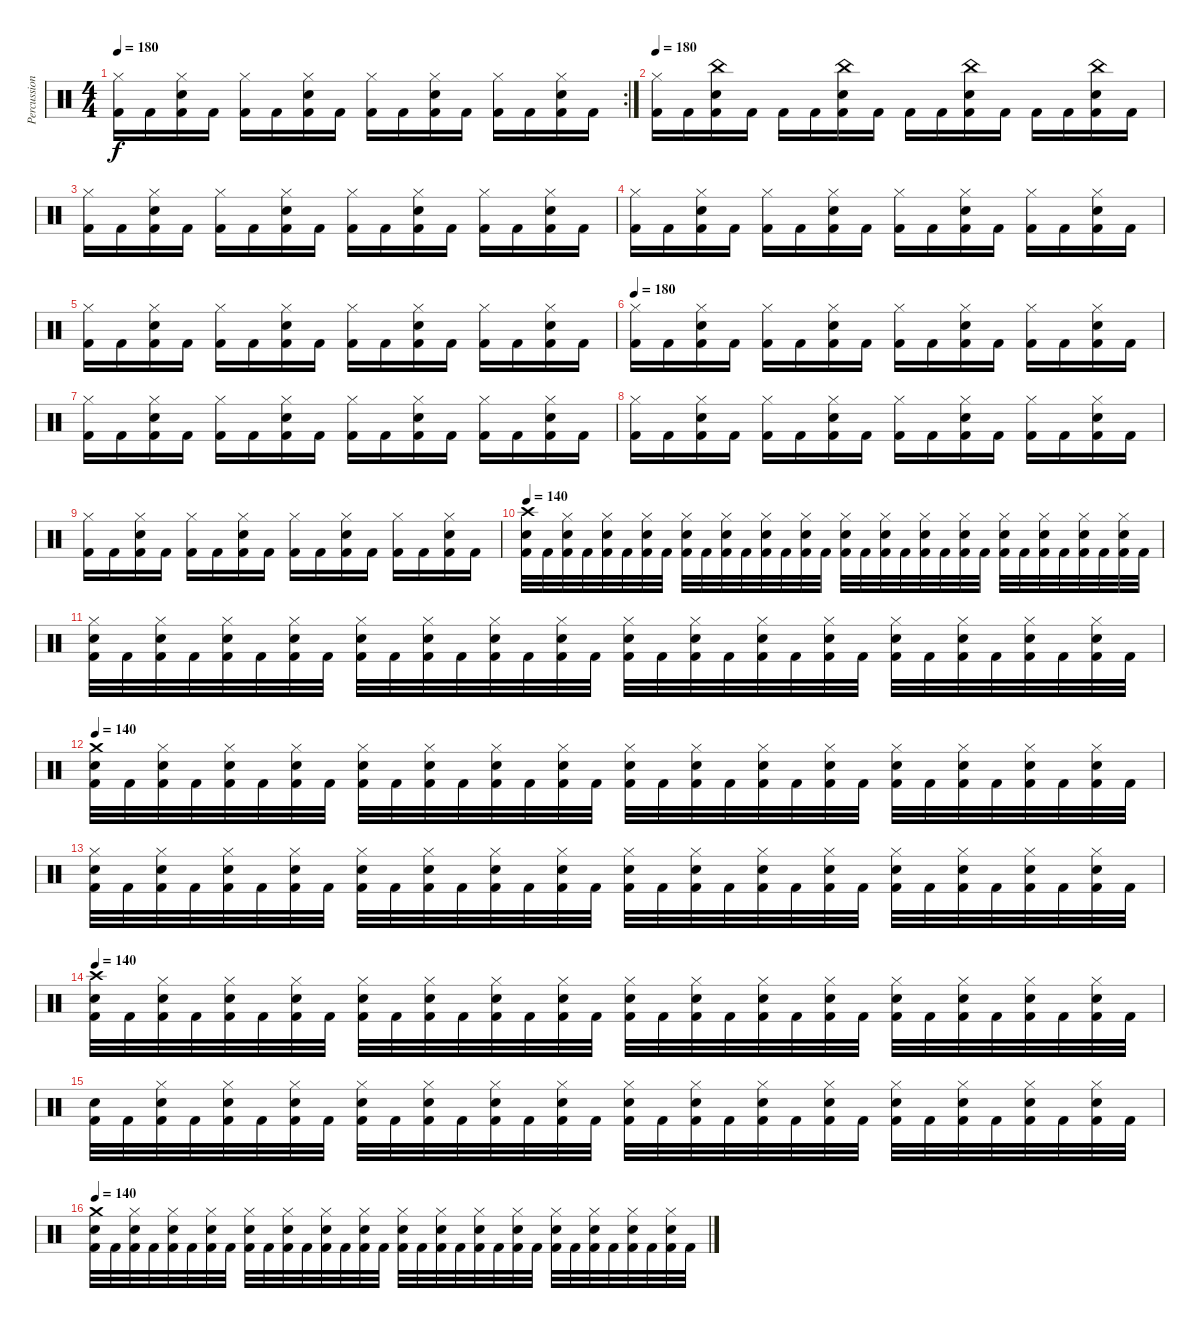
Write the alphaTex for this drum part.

\track ("Percussion" "Percussion") {instrument percussion}
\staff {score}
\articulation defaults
\rc 2
\ts (4 4)
\tempo 180
\clef neutral
\ks c
("Hi-Hat (closed)" "Kick (hit) 2").16{dy f} "Kick (hit) 2".16 ("Hi-Hat (closed)" "Electric Snare (hit)" "Kick (hit) 2").16 "Kick (hit) 2".16 ("Hi-Hat (closed)" "Kick (hit) 2").16 "Kick (hit) 2".16 ("Hi-Hat (closed)" "Electric Snare (hit)" "Kick (hit) 2").16 "Kick (hit) 2".16 ("Hi-Hat (closed)" "Kick (hit) 2").16 "Kick (hit) 2".16 ("Hi-Hat (closed)" "Electric Snare (hit)" "Kick (hit) 2").16 "Kick (hit) 2".16 ("Hi-Hat (closed)" "Kick (hit) 2").16 "Kick (hit) 2".16 ("Hi-Hat (closed)" "Electric Snare (hit)" "Kick (hit) 2").16 "Kick (hit) 2".16 |
\tempo 180
("Hi-Hat (closed)" "Kick (hit) 2").16 "Kick (hit) 2".16 ("China (hit)" "Electric Snare (hit)" "Kick (hit) 2").16 "Kick (hit) 2".16 "Kick (hit) 2".16 "Kick (hit) 2".16 ("China (hit)" "Electric Snare (hit)" "Kick (hit) 2").16 "Kick (hit) 2".16 "Kick (hit) 2".16 "Kick (hit) 2".16 ("China (hit)" "Electric Snare (hit)" "Kick (hit) 2").16 "Kick (hit) 2".16 "Kick (hit) 2".16 "Kick (hit) 2".16 ("China (hit)" "Electric Snare (hit)" "Kick (hit) 2").16 "Kick (hit) 2".16 |
("Hi-Hat (closed)" "Kick (hit) 2").16 "Kick (hit) 2".16 ("Hi-Hat (closed)" "Electric Snare (hit)" "Kick (hit) 2").16 "Kick (hit) 2".16 ("Hi-Hat (closed)" "Kick (hit) 2").16 "Kick (hit) 2".16 ("Hi-Hat (closed)" "Electric Snare (hit)" "Kick (hit) 2").16 "Kick (hit) 2".16 ("Hi-Hat (closed)" "Kick (hit) 2").16 "Kick (hit) 2".16 ("Hi-Hat (closed)" "Electric Snare (hit)" "Kick (hit) 2").16 "Kick (hit) 2".16 ("Hi-Hat (closed)" "Kick (hit) 2").16 "Kick (hit) 2".16 ("Hi-Hat (closed)" "Electric Snare (hit)" "Kick (hit) 2").16 "Kick (hit) 2".16 |
("Hi-Hat (closed)" "Kick (hit) 2").16 "Kick (hit) 2".16 ("Hi-Hat (closed)" "Electric Snare (hit)" "Kick (hit) 2").16 "Kick (hit) 2".16 ("Hi-Hat (closed)" "Kick (hit) 2").16 "Kick (hit) 2".16 ("Hi-Hat (closed)" "Electric Snare (hit)" "Kick (hit) 2").16 "Kick (hit) 2".16 ("Hi-Hat (closed)" "Kick (hit) 2").16 "Kick (hit) 2".16 ("Hi-Hat (closed)" "Electric Snare (hit)" "Kick (hit) 2").16 "Kick (hit) 2".16 ("Hi-Hat (closed)" "Kick (hit) 2").16 "Kick (hit) 2".16 ("Hi-Hat (closed)" "Electric Snare (hit)" "Kick (hit) 2").16 "Kick (hit) 2".16 |
("Hi-Hat (closed)" "Kick (hit) 2").16 "Kick (hit) 2".16 ("Hi-Hat (closed)" "Electric Snare (hit)" "Kick (hit) 2").16 "Kick (hit) 2".16 ("Hi-Hat (closed)" "Kick (hit) 2").16 "Kick (hit) 2".16 ("Hi-Hat (closed)" "Electric Snare (hit)" "Kick (hit) 2").16 "Kick (hit) 2".16 ("Hi-Hat (closed)" "Kick (hit) 2").16 "Kick (hit) 2".16 ("Hi-Hat (closed)" "Electric Snare (hit)" "Kick (hit) 2").16 "Kick (hit) 2".16 ("Hi-Hat (closed)" "Kick (hit) 2").16 "Kick (hit) 2".16 ("Hi-Hat (closed)" "Electric Snare (hit)" "Kick (hit) 2").16 "Kick (hit) 2".16 |
\tempo 180
("Hi-Hat (closed)" "Kick (hit) 2").16 "Kick (hit) 2".16 ("Hi-Hat (closed)" "Electric Snare (hit)" "Kick (hit) 2").16 "Kick (hit) 2".16 ("Hi-Hat (closed)" "Kick (hit) 2").16 "Kick (hit) 2".16 ("Hi-Hat (closed)" "Electric Snare (hit)" "Kick (hit) 2").16 "Kick (hit) 2".16 ("Hi-Hat (closed)" "Kick (hit) 2").16 "Kick (hit) 2".16 ("Hi-Hat (closed)" "Electric Snare (hit)" "Kick (hit) 2").16 "Kick (hit) 2".16 ("Hi-Hat (closed)" "Kick (hit) 2").16 "Kick (hit) 2".16 ("Hi-Hat (closed)" "Electric Snare (hit)" "Kick (hit) 2").16 "Kick (hit) 2".16 |
("Hi-Hat (closed)" "Kick (hit) 2").16 "Kick (hit) 2".16 ("Hi-Hat (closed)" "Electric Snare (hit)" "Kick (hit) 2").16 "Kick (hit) 2".16 ("Hi-Hat (closed)" "Kick (hit) 2").16 "Kick (hit) 2".16 ("Hi-Hat (closed)" "Electric Snare (hit)" "Kick (hit) 2").16 "Kick (hit) 2".16 ("Hi-Hat (closed)" "Kick (hit) 2").16 "Kick (hit) 2".16 ("Hi-Hat (closed)" "Electric Snare (hit)" "Kick (hit) 2").16 "Kick (hit) 2".16 ("Hi-Hat (closed)" "Kick (hit) 2").16 "Kick (hit) 2".16 ("Hi-Hat (closed)" "Electric Snare (hit)" "Kick (hit) 2").16 "Kick (hit) 2".16 |
("Hi-Hat (closed)" "Kick (hit) 2").16 "Kick (hit) 2".16 ("Hi-Hat (closed)" "Electric Snare (hit)" "Kick (hit) 2").16 "Kick (hit) 2".16 ("Hi-Hat (closed)" "Kick (hit) 2").16 "Kick (hit) 2".16 ("Hi-Hat (closed)" "Electric Snare (hit)" "Kick (hit) 2").16 "Kick (hit) 2".16 ("Hi-Hat (closed)" "Kick (hit) 2").16 "Kick (hit) 2".16 ("Hi-Hat (closed)" "Electric Snare (hit)" "Kick (hit) 2").16 "Kick (hit) 2".16 ("Hi-Hat (closed)" "Kick (hit) 2").16 "Kick (hit) 2".16 ("Hi-Hat (closed)" "Electric Snare (hit)" "Kick (hit) 2").16 "Kick (hit) 2".16 |
("Hi-Hat (closed)" "Kick (hit) 2").16 "Kick (hit) 2".16 ("Hi-Hat (closed)" "Electric Snare (hit)" "Kick (hit) 2").16 "Kick (hit) 2".16 ("Hi-Hat (closed)" "Kick (hit) 2").16 "Kick (hit) 2".16 ("Hi-Hat (closed)" "Electric Snare (hit)" "Kick (hit) 2").16 "Kick (hit) 2".16 ("Hi-Hat (closed)" "Kick (hit) 2").16 "Kick (hit) 2".16 ("Hi-Hat (closed)" "Electric Snare (hit)" "Kick (hit) 2").16 "Kick (hit) 2".16 ("Hi-Hat (closed)" "Kick (hit) 2").16 "Kick (hit) 2".16 ("Hi-Hat (closed)" "Electric Snare (hit)" "Kick (hit) 2").16 "Kick (hit) 2".16 |
\tempo 140
("Crash high (hit)" "Electric Snare (hit)" "Kick (hit) 2").32 "Kick (hit) 2".32 ("Hi-Hat (closed)" "Electric Snare (hit)" "Kick (hit) 2").32 "Kick (hit) 2".32 ("Hi-Hat (closed)" "Electric Snare (hit)" "Kick (hit) 2").32 "Kick (hit) 2".32 ("Hi-Hat (closed)" "Electric Snare (hit)" "Kick (hit) 2").32 "Kick (hit) 2".32 ("Hi-Hat (closed)" "Electric Snare (hit)" "Kick (hit) 2").32 "Kick (hit) 2".32 ("Hi-Hat (closed)" "Electric Snare (hit)" "Kick (hit) 2").32 "Kick (hit) 2".32 ("Hi-Hat (closed)" "Electric Snare (hit)" "Kick (hit) 2").32 "Kick (hit) 2".32 ("Hi-Hat (closed)" "Electric Snare (hit)" "Kick (hit) 2").32 "Kick (hit) 2".32 ("Hi-Hat (closed)" "Electric Snare (hit)" "Kick (hit) 2").32 "Kick (hit) 2".32 ("Hi-Hat (closed)" "Electric Snare (hit)" "Kick (hit) 2").32 "Kick (hit) 2".32 ("Hi-Hat (closed)" "Electric Snare (hit)" "Kick (hit) 2").32 "Kick (hit) 2".32 ("Hi-Hat (closed)" "Electric Snare (hit)" "Kick (hit) 2").32 "Kick (hit) 2".32 ("Hi-Hat (closed)" "Electric Snare (hit)" "Kick (hit) 2").32 "Kick (hit) 2".32 ("Hi-Hat (closed)" "Electric Snare (hit)" "Kick (hit) 2").32 "Kick (hit) 2".32 ("Hi-Hat (closed)" "Electric Snare (hit)" "Kick (hit) 2").32 "Kick (hit) 2".32 ("Hi-Hat (closed)" "Electric Snare (hit)" "Kick (hit) 2").32 "Kick (hit) 2".32 |
("Hi-Hat (closed)" "Electric Snare (hit)" "Kick (hit) 2").32 "Kick (hit) 2".32 ("Hi-Hat (closed)" "Electric Snare (hit)" "Kick (hit) 2").32 "Kick (hit) 2".32 ("Hi-Hat (closed)" "Electric Snare (hit)" "Kick (hit) 2").32 "Kick (hit) 2".32 ("Hi-Hat (closed)" "Electric Snare (hit)" "Kick (hit) 2").32 "Kick (hit) 2".32 ("Hi-Hat (closed)" "Electric Snare (hit)" "Kick (hit) 2").32 "Kick (hit) 2".32 ("Hi-Hat (closed)" "Electric Snare (hit)" "Kick (hit) 2").32 "Kick (hit) 2".32 ("Hi-Hat (closed)" "Electric Snare (hit)" "Kick (hit) 2").32 "Kick (hit) 2".32 ("Hi-Hat (closed)" "Electric Snare (hit)" "Kick (hit) 2").32 "Kick (hit) 2".32 ("Hi-Hat (closed)" "Electric Snare (hit)" "Kick (hit) 2").32 "Kick (hit) 2".32 ("Hi-Hat (closed)" "Electric Snare (hit)" "Kick (hit) 2").32 "Kick (hit) 2".32 ("Hi-Hat (closed)" "Electric Snare (hit)" "Kick (hit) 2").32 "Kick (hit) 2".32 ("Hi-Hat (closed)" "Electric Snare (hit)" "Kick (hit) 2").32 "Kick (hit) 2".32 ("Hi-Hat (closed)" "Electric Snare (hit)" "Kick (hit) 2").32 "Kick (hit) 2".32 ("Hi-Hat (closed)" "Electric Snare (hit)" "Kick (hit) 2").32 "Kick (hit) 2".32 ("Hi-Hat (closed)" "Electric Snare (hit)" "Kick (hit) 2").32 "Kick (hit) 2".32 ("Hi-Hat (closed)" "Electric Snare (hit)" "Kick (hit) 2").32 "Kick (hit) 2".32 |
\tempo 140
("Crash medium (hit)" "Electric Snare (hit)" "Kick (hit) 2").32 "Kick (hit) 2".32 ("Hi-Hat (closed)" "Electric Snare (hit)" "Kick (hit) 2").32 "Kick (hit) 2".32 ("Hi-Hat (closed)" "Electric Snare (hit)" "Kick (hit) 2").32 "Kick (hit) 2".32 ("Hi-Hat (closed)" "Electric Snare (hit)" "Kick (hit) 2").32 "Kick (hit) 2".32 ("Hi-Hat (closed)" "Electric Snare (hit)" "Kick (hit) 2").32 "Kick (hit) 2".32 ("Hi-Hat (closed)" "Electric Snare (hit)" "Kick (hit) 2").32 "Kick (hit) 2".32 ("Hi-Hat (closed)" "Electric Snare (hit)" "Kick (hit) 2").32 "Kick (hit) 2".32 ("Hi-Hat (closed)" "Electric Snare (hit)" "Kick (hit) 2").32 "Kick (hit) 2".32 ("Hi-Hat (closed)" "Electric Snare (hit)" "Kick (hit) 2").32 "Kick (hit) 2".32 ("Hi-Hat (closed)" "Electric Snare (hit)" "Kick (hit) 2").32 "Kick (hit) 2".32 ("Hi-Hat (closed)" "Electric Snare (hit)" "Kick (hit) 2").32 "Kick (hit) 2".32 ("Hi-Hat (closed)" "Electric Snare (hit)" "Kick (hit) 2").32 "Kick (hit) 2".32 ("Hi-Hat (closed)" "Electric Snare (hit)" "Kick (hit) 2").32 "Kick (hit) 2".32 ("Hi-Hat (closed)" "Electric Snare (hit)" "Kick (hit) 2").32 "Kick (hit) 2".32 ("Hi-Hat (closed)" "Electric Snare (hit)" "Kick (hit) 2").32 "Kick (hit) 2".32 ("Hi-Hat (closed)" "Electric Snare (hit)" "Kick (hit) 2").32 "Kick (hit) 2".32 |
("Hi-Hat (closed)" "Electric Snare (hit)" "Kick (hit) 2").32 "Kick (hit) 2".32 ("Hi-Hat (closed)" "Electric Snare (hit)" "Kick (hit) 2").32 "Kick (hit) 2".32 ("Hi-Hat (closed)" "Electric Snare (hit)" "Kick (hit) 2").32 "Kick (hit) 2".32 ("Hi-Hat (closed)" "Electric Snare (hit)" "Kick (hit) 2").32 "Kick (hit) 2".32 ("Hi-Hat (closed)" "Electric Snare (hit)" "Kick (hit) 2").32 "Kick (hit) 2".32 ("Hi-Hat (closed)" "Electric Snare (hit)" "Kick (hit) 2").32 "Kick (hit) 2".32 ("Hi-Hat (closed)" "Electric Snare (hit)" "Kick (hit) 2").32 "Kick (hit) 2".32 ("Hi-Hat (closed)" "Electric Snare (hit)" "Kick (hit) 2").32 "Kick (hit) 2".32 ("Hi-Hat (closed)" "Electric Snare (hit)" "Kick (hit) 2").32 "Kick (hit) 2".32 ("Hi-Hat (closed)" "Electric Snare (hit)" "Kick (hit) 2").32 "Kick (hit) 2".32 ("Hi-Hat (closed)" "Electric Snare (hit)" "Kick (hit) 2").32 "Kick (hit) 2".32 ("Hi-Hat (closed)" "Electric Snare (hit)" "Kick (hit) 2").32 "Kick (hit) 2".32 ("Hi-Hat (closed)" "Electric Snare (hit)" "Kick (hit) 2").32 "Kick (hit) 2".32 ("Hi-Hat (closed)" "Electric Snare (hit)" "Kick (hit) 2").32 "Kick (hit) 2".32 ("Hi-Hat (closed)" "Electric Snare (hit)" "Kick (hit) 2").32 "Kick (hit) 2".32 ("Hi-Hat (closed)" "Electric Snare (hit)" "Kick (hit) 2").32 "Kick (hit) 2".32 |
\tempo 140
("Crash high (hit)" "Electric Snare (hit)" "Kick (hit) 2").32 "Kick (hit) 2".32 ("Hi-Hat (closed)" "Electric Snare (hit)" "Kick (hit) 2").32 "Kick (hit) 2".32 ("Hi-Hat (closed)" "Electric Snare (hit)" "Kick (hit) 2").32 "Kick (hit) 2".32 ("Hi-Hat (closed)" "Electric Snare (hit)" "Kick (hit) 2").32 "Kick (hit) 2".32 ("Hi-Hat (closed)" "Electric Snare (hit)" "Kick (hit) 2").32 "Kick (hit) 2".32 ("Hi-Hat (closed)" "Electric Snare (hit)" "Kick (hit) 2").32 "Kick (hit) 2".32 ("Hi-Hat (closed)" "Electric Snare (hit)" "Kick (hit) 2").32 "Kick (hit) 2".32 ("Hi-Hat (closed)" "Electric Snare (hit)" "Kick (hit) 2").32 "Kick (hit) 2".32 ("Hi-Hat (closed)" "Electric Snare (hit)" "Kick (hit) 2").32 "Kick (hit) 2".32 ("Hi-Hat (closed)" "Electric Snare (hit)" "Kick (hit) 2").32 "Kick (hit) 2".32 ("Hi-Hat (closed)" "Electric Snare (hit)" "Kick (hit) 2").32 "Kick (hit) 2".32 ("Hi-Hat (closed)" "Electric Snare (hit)" "Kick (hit) 2").32 "Kick (hit) 2".32 ("Hi-Hat (closed)" "Electric Snare (hit)" "Kick (hit) 2").32 "Kick (hit) 2".32 ("Hi-Hat (closed)" "Electric Snare (hit)" "Kick (hit) 2").32 "Kick (hit) 2".32 ("Hi-Hat (closed)" "Electric Snare (hit)" "Kick (hit) 2").32 "Kick (hit) 2".32 ("Hi-Hat (closed)" "Electric Snare (hit)" "Kick (hit) 2").32 "Kick (hit) 2".32 |
("Electric Snare (hit)" "Kick (hit) 2").32 "Kick (hit) 2".32 ("Hi-Hat (closed)" "Electric Snare (hit)" "Kick (hit) 2").32 "Kick (hit) 2".32 ("Hi-Hat (closed)" "Electric Snare (hit)" "Kick (hit) 2").32 "Kick (hit) 2".32 ("Hi-Hat (closed)" "Electric Snare (hit)" "Kick (hit) 2").32 "Kick (hit) 2".32 ("Hi-Hat (closed)" "Electric Snare (hit)" "Kick (hit) 2").32 "Kick (hit) 2".32 ("Hi-Hat (closed)" "Electric Snare (hit)" "Kick (hit) 2").32 "Kick (hit) 2".32 ("Hi-Hat (closed)" "Electric Snare (hit)" "Kick (hit) 2").32 "Kick (hit) 2".32 ("Hi-Hat (closed)" "Electric Snare (hit)" "Kick (hit) 2").32 "Kick (hit) 2".32 ("Hi-Hat (closed)" "Electric Snare (hit)" "Kick (hit) 2").32 "Kick (hit) 2".32 ("Hi-Hat (closed)" "Electric Snare (hit)" "Kick (hit) 2").32 "Kick (hit) 2".32 ("Hi-Hat (closed)" "Electric Snare (hit)" "Kick (hit) 2").32 "Kick (hit) 2".32 ("Hi-Hat (closed)" "Electric Snare (hit)" "Kick (hit) 2").32 "Kick (hit) 2".32 ("Hi-Hat (closed)" "Electric Snare (hit)" "Kick (hit) 2").32 "Kick (hit) 2".32 ("Hi-Hat (closed)" "Electric Snare (hit)" "Kick (hit) 2").32 "Kick (hit) 2".32 ("Hi-Hat (closed)" "Electric Snare (hit)" "Kick (hit) 2").32 "Kick (hit) 2".32 ("Hi-Hat (closed)" "Electric Snare (hit)" "Kick (hit) 2").32 "Kick (hit) 2".32 |
\tempo 140
("Crash medium (hit)" "Electric Snare (hit)" "Kick (hit) 2").32 "Kick (hit) 2".32 ("Hi-Hat (closed)" "Electric Snare (hit)" "Kick (hit) 2").32 "Kick (hit) 2".32 ("Hi-Hat (closed)" "Electric Snare (hit)" "Kick (hit) 2").32 "Kick (hit) 2".32 ("Hi-Hat (closed)" "Electric Snare (hit)" "Kick (hit) 2").32 "Kick (hit) 2".32 ("Hi-Hat (closed)" "Electric Snare (hit)" "Kick (hit) 2").32 "Kick (hit) 2".32 ("Hi-Hat (closed)" "Electric Snare (hit)" "Kick (hit) 2").32 "Kick (hit) 2".32 ("Hi-Hat (closed)" "Electric Snare (hit)" "Kick (hit) 2").32 "Kick (hit) 2".32 ("Hi-Hat (closed)" "Electric Snare (hit)" "Kick (hit) 2").32 "Kick (hit) 2".32 ("Hi-Hat (closed)" "Electric Snare (hit)" "Kick (hit) 2").32 "Kick (hit) 2".32 ("Hi-Hat (closed)" "Electric Snare (hit)" "Kick (hit) 2").32 "Kick (hit) 2".32 ("Hi-Hat (closed)" "Electric Snare (hit)" "Kick (hit) 2").32 "Kick (hit) 2".32 ("Hi-Hat (closed)" "Electric Snare (hit)" "Kick (hit) 2").32 "Kick (hit) 2".32 ("Hi-Hat (closed)" "Electric Snare (hit)" "Kick (hit) 2").32 "Kick (hit) 2".32 ("Hi-Hat (closed)" "Electric Snare (hit)" "Kick (hit) 2").32 "Kick (hit) 2".32 ("Hi-Hat (closed)" "Electric Snare (hit)" "Kick (hit) 2").32 "Kick (hit) 2".32 ("Hi-Hat (closed)" "Electric Snare (hit)" "Kick (hit) 2").32 "Kick (hit) 2".32
